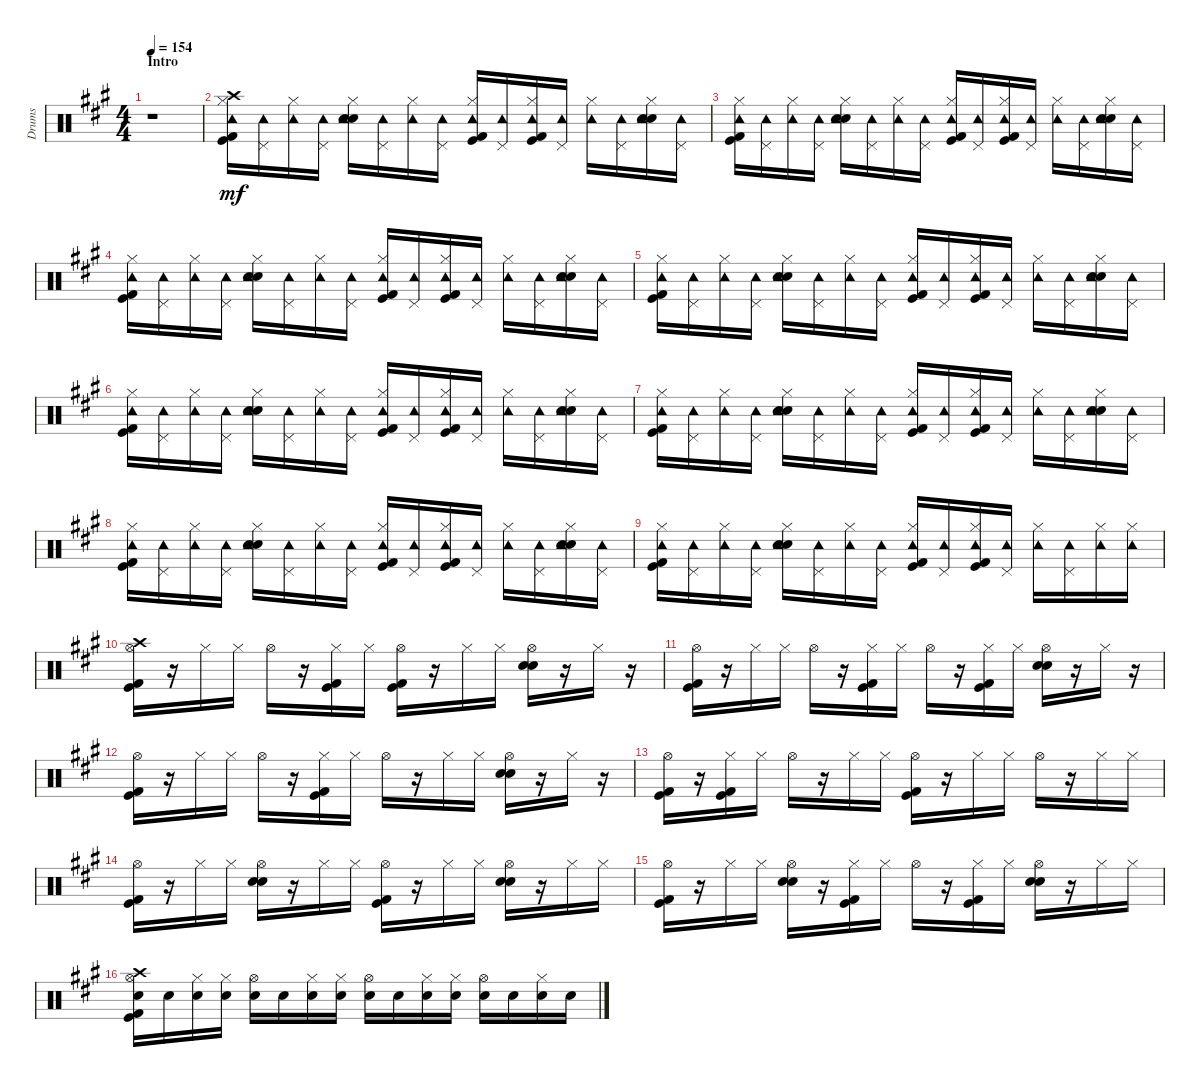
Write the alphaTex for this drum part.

\track ("Drums" "Drums") {instrument percussion}
\staff {score}
\articulation defaults
\ts (4 4)
\section ("" "Intro")
\tempo 154
\clef neutral
\ks a
r.1{dy mf} |
("Kick (hit)" "Kick (hit) 2" "Hi-Hat (closed)" "Crash high (hit)" "Tambourine (hit)").16 ("Pedal Hi-Hat (hit)" "Tambourine (hit)").16 ("Hi-Hat (closed)" "Tambourine (hit)").16 ("Pedal Hi-Hat (hit)" "Tambourine (hit)").16 ("Snare (hit) 2" "Electric Snare (hit)" "Hi-Hat (closed)" "Tambourine (hit)").16 ("Pedal Hi-Hat (hit)" "Tambourine (hit)").16 ("Hi-Hat (closed)" "Tambourine (hit)").16 ("Pedal Hi-Hat (hit)" "Tambourine (hit)").16 ("Kick (hit)" "Kick (hit) 2" "Hi-Hat (closed)" "Tambourine (hit)").16 ("Pedal Hi-Hat (hit)" "Tambourine (hit)").16 ("Kick (hit)" "Kick (hit) 2" "Hi-Hat (closed)" "Tambourine (hit)").16 ("Pedal Hi-Hat (hit)" "Tambourine (hit)").16 ("Hi-Hat (closed)" "Tambourine (hit)").16 ("Pedal Hi-Hat (hit)" "Tambourine (hit)").16 ("Snare (hit) 2" "Electric Snare (hit)" "Hi-Hat (closed)" "Tambourine (hit)").16 ("Pedal Hi-Hat (hit)" "Tambourine (hit)").16 |
("Kick (hit)" "Kick (hit) 2" "Hi-Hat (closed)" "Tambourine (hit)").16 ("Pedal Hi-Hat (hit)" "Tambourine (hit)").16 ("Hi-Hat (closed)" "Tambourine (hit)").16 ("Pedal Hi-Hat (hit)" "Tambourine (hit)").16 ("Snare (hit) 2" "Electric Snare (hit)" "Hi-Hat (closed)" "Tambourine (hit)").16 ("Pedal Hi-Hat (hit)" "Tambourine (hit)").16 ("Hi-Hat (closed)" "Tambourine (hit)").16 ("Pedal Hi-Hat (hit)" "Tambourine (hit)").16 ("Kick (hit)" "Kick (hit) 2" "Hi-Hat (closed)" "Tambourine (hit)").16 ("Pedal Hi-Hat (hit)" "Tambourine (hit)").16 ("Kick (hit)" "Kick (hit) 2" "Hi-Hat (closed)" "Tambourine (hit)").16 ("Pedal Hi-Hat (hit)" "Tambourine (hit)").16 ("Hi-Hat (closed)" "Tambourine (hit)").16 ("Pedal Hi-Hat (hit)" "Tambourine (hit)").16 ("Snare (hit) 2" "Electric Snare (hit)" "Hi-Hat (closed)" "Tambourine (hit)").16 ("Pedal Hi-Hat (hit)" "Tambourine (hit)").16 |
("Kick (hit)" "Kick (hit) 2" "Hi-Hat (closed)" "Tambourine (hit)").16 ("Pedal Hi-Hat (hit)" "Tambourine (hit)").16 ("Hi-Hat (closed)" "Tambourine (hit)").16 ("Pedal Hi-Hat (hit)" "Tambourine (hit)").16 ("Snare (hit) 2" "Electric Snare (hit)" "Hi-Hat (closed)" "Tambourine (hit)").16 ("Pedal Hi-Hat (hit)" "Tambourine (hit)").16 ("Hi-Hat (closed)" "Tambourine (hit)").16 ("Pedal Hi-Hat (hit)" "Tambourine (hit)").16 ("Kick (hit)" "Kick (hit) 2" "Hi-Hat (closed)" "Tambourine (hit)").16 ("Pedal Hi-Hat (hit)" "Tambourine (hit)").16 ("Kick (hit)" "Kick (hit) 2" "Hi-Hat (closed)" "Tambourine (hit)").16 ("Pedal Hi-Hat (hit)" "Tambourine (hit)").16 ("Hi-Hat (closed)" "Tambourine (hit)").16 ("Pedal Hi-Hat (hit)" "Tambourine (hit)").16 ("Snare (hit) 2" "Electric Snare (hit)" "Hi-Hat (closed)" "Tambourine (hit)").16 ("Pedal Hi-Hat (hit)" "Tambourine (hit)").16 |
("Kick (hit)" "Kick (hit) 2" "Hi-Hat (closed)" "Tambourine (hit)").16 ("Pedal Hi-Hat (hit)" "Tambourine (hit)").16 ("Hi-Hat (closed)" "Tambourine (hit)").16 ("Pedal Hi-Hat (hit)" "Tambourine (hit)").16 ("Snare (hit) 2" "Electric Snare (hit)" "Hi-Hat (closed)" "Tambourine (hit)").16 ("Pedal Hi-Hat (hit)" "Tambourine (hit)").16 ("Hi-Hat (closed)" "Tambourine (hit)").16 ("Pedal Hi-Hat (hit)" "Tambourine (hit)").16 ("Kick (hit)" "Kick (hit) 2" "Hi-Hat (closed)" "Tambourine (hit)").16 ("Pedal Hi-Hat (hit)" "Tambourine (hit)").16 ("Kick (hit)" "Kick (hit) 2" "Hi-Hat (closed)" "Tambourine (hit)").16 ("Pedal Hi-Hat (hit)" "Tambourine (hit)").16 ("Hi-Hat (closed)" "Tambourine (hit)").16 ("Pedal Hi-Hat (hit)" "Tambourine (hit)").16 ("Snare (hit) 2" "Electric Snare (hit)" "Hi-Hat (closed)" "Tambourine (hit)").16 ("Pedal Hi-Hat (hit)" "Tambourine (hit)").16 |
("Kick (hit)" "Kick (hit) 2" "Hi-Hat (closed)" "Tambourine (hit)").16 ("Pedal Hi-Hat (hit)" "Tambourine (hit)").16 ("Hi-Hat (closed)" "Tambourine (hit)").16 ("Pedal Hi-Hat (hit)" "Tambourine (hit)").16 ("Snare (hit) 2" "Electric Snare (hit)" "Hi-Hat (closed)" "Tambourine (hit)").16 ("Pedal Hi-Hat (hit)" "Tambourine (hit)").16 ("Hi-Hat (closed)" "Tambourine (hit)").16 ("Pedal Hi-Hat (hit)" "Tambourine (hit)").16 ("Kick (hit)" "Kick (hit) 2" "Hi-Hat (closed)" "Tambourine (hit)").16 ("Pedal Hi-Hat (hit)" "Tambourine (hit)").16 ("Kick (hit)" "Kick (hit) 2" "Hi-Hat (closed)" "Tambourine (hit)").16 ("Pedal Hi-Hat (hit)" "Tambourine (hit)").16 ("Hi-Hat (closed)" "Tambourine (hit)").16 ("Pedal Hi-Hat (hit)" "Tambourine (hit)").16 ("Snare (hit) 2" "Electric Snare (hit)" "Hi-Hat (closed)" "Tambourine (hit)").16 ("Pedal Hi-Hat (hit)" "Tambourine (hit)").16 |
("Kick (hit)" "Kick (hit) 2" "Hi-Hat (closed)" "Tambourine (hit)").16 ("Pedal Hi-Hat (hit)" "Tambourine (hit)").16 ("Hi-Hat (closed)" "Tambourine (hit)").16 ("Pedal Hi-Hat (hit)" "Tambourine (hit)").16 ("Snare (hit) 2" "Electric Snare (hit)" "Hi-Hat (closed)" "Tambourine (hit)").16 ("Pedal Hi-Hat (hit)" "Tambourine (hit)").16 ("Hi-Hat (closed)" "Tambourine (hit)").16 ("Pedal Hi-Hat (hit)" "Tambourine (hit)").16 ("Kick (hit)" "Kick (hit) 2" "Hi-Hat (closed)" "Tambourine (hit)").16 ("Pedal Hi-Hat (hit)" "Tambourine (hit)").16 ("Kick (hit)" "Kick (hit) 2" "Hi-Hat (closed)" "Tambourine (hit)").16 ("Pedal Hi-Hat (hit)" "Tambourine (hit)").16 ("Hi-Hat (closed)" "Tambourine (hit)").16 ("Pedal Hi-Hat (hit)" "Tambourine (hit)").16 ("Snare (hit) 2" "Electric Snare (hit)" "Hi-Hat (closed)" "Tambourine (hit)").16 ("Pedal Hi-Hat (hit)" "Tambourine (hit)").16 |
("Kick (hit)" "Kick (hit) 2" "Hi-Hat (closed)" "Tambourine (hit)").16 ("Pedal Hi-Hat (hit)" "Tambourine (hit)").16 ("Hi-Hat (closed)" "Tambourine (hit)").16 ("Pedal Hi-Hat (hit)" "Tambourine (hit)").16 ("Snare (hit) 2" "Electric Snare (hit)" "Hi-Hat (closed)" "Tambourine (hit)").16 ("Pedal Hi-Hat (hit)" "Tambourine (hit)").16 ("Hi-Hat (closed)" "Tambourine (hit)").16 ("Pedal Hi-Hat (hit)" "Tambourine (hit)").16 ("Kick (hit)" "Kick (hit) 2" "Hi-Hat (closed)" "Tambourine (hit)").16 ("Pedal Hi-Hat (hit)" "Tambourine (hit)").16 ("Kick (hit)" "Kick (hit) 2" "Hi-Hat (closed)" "Tambourine (hit)").16 ("Pedal Hi-Hat (hit)" "Tambourine (hit)").16 ("Hi-Hat (closed)" "Tambourine (hit)").16 ("Pedal Hi-Hat (hit)" "Tambourine (hit)").16 ("Snare (hit) 2" "Electric Snare (hit)" "Hi-Hat (closed)" "Tambourine (hit)").16 ("Pedal Hi-Hat (hit)" "Tambourine (hit)").16 |
("Kick (hit)" "Kick (hit) 2" "Hi-Hat (closed)" "Tambourine (hit)").16 ("Pedal Hi-Hat (hit)" "Tambourine (hit)").16 ("Hi-Hat (closed)" "Tambourine (hit)").16 ("Pedal Hi-Hat (hit)" "Tambourine (hit)").16 ("Snare (hit) 2" "Electric Snare (hit)" "Hi-Hat (closed)" "Tambourine (hit)").16 ("Pedal Hi-Hat (hit)" "Tambourine (hit)").16 ("Hi-Hat (closed)" "Tambourine (hit)").16 ("Pedal Hi-Hat (hit)" "Tambourine (hit)").16 ("Kick (hit)" "Kick (hit) 2" "Hi-Hat (closed)" "Tambourine (hit)").16 ("Pedal Hi-Hat (hit)" "Tambourine (hit)").16 ("Kick (hit)" "Kick (hit) 2" "Hi-Hat (closed)" "Tambourine (hit)").16 ("Pedal Hi-Hat (hit)" "Tambourine (hit)").16 ("Hi-Hat (closed)" "Tambourine (hit)").16 ("Pedal Hi-Hat (hit)" "Tambourine (hit)").16 ("Hi-Hat (closed)" "Tambourine (hit)").16 ("Hi-Hat (closed)" "Tambourine (hit)").16 |
("Kick (hit)" "Kick (hit) 2" "Hi-Hat (open)" "Crash high (hit)").16 r.16 "Hi-Hat (closed)".16 "Hi-Hat (closed)".16 "Hi-Hat (open)".16 r.16 ("Kick (hit)" "Kick (hit) 2" "Hi-Hat (closed)").16 "Hi-Hat (closed)".16 ("Kick (hit)" "Kick (hit) 2" "Hi-Hat (open)").16 r.16 "Hi-Hat (closed)".16 "Hi-Hat (closed)".16 ("Snare (hit) 2" "Electric Snare (hit)" "Hi-Hat (open)").16 r.16 "Hi-Hat (closed)".16 r.16 |
("Kick (hit)" "Kick (hit) 2" "Hi-Hat (open)").16 r.16 "Hi-Hat (closed)".16 "Hi-Hat (closed)".16 "Hi-Hat (open)".16 r.16 ("Kick (hit)" "Kick (hit) 2" "Hi-Hat (closed)").16 "Hi-Hat (closed)".16 "Hi-Hat (open)".16 r.16 ("Kick (hit)" "Kick (hit) 2" "Hi-Hat (closed)").16 "Hi-Hat (closed)".16 ("Snare (hit) 2" "Electric Snare (hit)" "Hi-Hat (open)").16 r.16 "Hi-Hat (closed)".16 r.16 |
("Kick (hit)" "Kick (hit) 2" "Hi-Hat (open)").16 r.16 "Hi-Hat (closed)".16 "Hi-Hat (closed)".16 "Hi-Hat (open)".16 r.16 ("Kick (hit)" "Kick (hit) 2" "Hi-Hat (closed)").16 "Hi-Hat (closed)".16 "Hi-Hat (open)".16 r.16 "Hi-Hat (closed)".16 "Hi-Hat (closed)".16 ("Snare (hit) 2" "Electric Snare (hit)" "Hi-Hat (open)").16 r.16 "Hi-Hat (closed)".16 r.16 |
("Kick (hit)" "Kick (hit) 2" "Hi-Hat (open)").16 r.16 ("Kick (hit)" "Kick (hit) 2" "Hi-Hat (closed)").16 "Hi-Hat (closed)".16 "Hi-Hat (open)".16 r.16 "Hi-Hat (closed)".16 "Hi-Hat (closed)".16 ("Kick (hit)" "Kick (hit) 2" "Hi-Hat (open)").16 r.16 "Hi-Hat (closed)".16 "Hi-Hat (closed)".16 "Hi-Hat (open)".16 r.16 "Hi-Hat (closed)".16 "Hi-Hat (closed)".16 |
("Kick (hit)" "Kick (hit) 2" "Hi-Hat (open)").16 r.16 "Hi-Hat (closed)".16 "Hi-Hat (closed)".16 ("Snare (hit) 2" "Electric Snare (hit)" "Hi-Hat (open)").16 r.16 "Hi-Hat (closed)".16 "Hi-Hat (closed)".16 ("Kick (hit)" "Kick (hit) 2" "Hi-Hat (open)").16 r.16 "Hi-Hat (closed)".16 "Hi-Hat (closed)".16 ("Snare (hit) 2" "Electric Snare (hit)" "Hi-Hat (open)").16 r.16 "Hi-Hat (closed)".16 "Hi-Hat (closed)".16 |
("Kick (hit)" "Kick (hit) 2" "Hi-Hat (open)").16 r.16 "Hi-Hat (closed)".16 "Hi-Hat (closed)".16 ("Snare (hit) 2" "Electric Snare (hit)" "Hi-Hat (open)").16 r.16 ("Kick (hit)" "Kick (hit) 2" "Hi-Hat (closed)").16 "Hi-Hat (closed)".16 "Hi-Hat (open)".16 r.16 ("Kick (hit)" "Kick (hit) 2" "Hi-Hat (closed)").16 "Hi-Hat (closed)".16 ("Snare (hit) 2" "Electric Snare (hit)" "Hi-Hat (open)").16 r.16 "Hi-Hat (closed)".16 "Hi-Hat (closed)".16 |
("Kick (hit)" "Kick (hit) 2" "Electric Snare (hit)" "Hi-Hat (open)" "Crash high (hit)").16 "Electric Snare (hit)".16 ("Electric Snare (hit)" "Hi-Hat (closed)").16 ("Electric Snare (hit)" "Hi-Hat (closed)").16 ("Electric Snare (hit)" "Hi-Hat (open)").16 "Electric Snare (hit)".16 ("Electric Snare (hit)" "Hi-Hat (closed)").16 ("Electric Snare (hit)" "Hi-Hat (closed)").16 ("Electric Snare (hit)" "Hi-Hat (open)").16 "Electric Snare (hit)".16 ("Electric Snare (hit)" "Hi-Hat (closed)").16 ("Electric Snare (hit)" "Hi-Hat (closed)").16 ("Electric Snare (hit)" "Hi-Hat (open)").16 "Electric Snare (hit)".16 ("Electric Snare (hit)" "Hi-Hat (closed)").16 "Electric Snare (hit)".16
